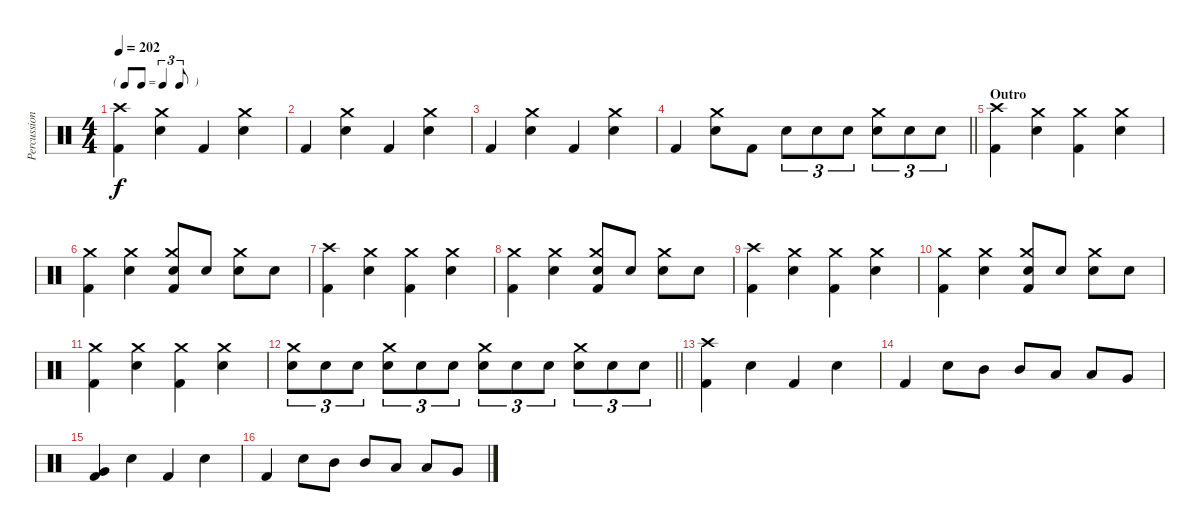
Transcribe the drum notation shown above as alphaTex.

\track ("Percussion" "Percussion") {instrument percussion}
\staff {score}
\articulation defaults
\ts (4 4)
\tf triplet8th
\tempo 202
\clef neutral
\ks c
("Crash high (hit)" "Kick (hit) 2").4{dy f} ("Crash medium (hit)" "Electric Snare (hit)").4 "Kick (hit) 2".4 ("Crash medium (hit)" "Electric Snare (hit)").4 |
"Kick (hit) 2".4 ("Crash medium (hit)" "Electric Snare (hit)").4 "Kick (hit) 2".4 ("Crash medium (hit)" "Electric Snare (hit)").4 |
"Kick (hit) 2".4 ("Crash medium (hit)" "Electric Snare (hit)").4 "Kick (hit) 2".4 ("Crash medium (hit)" "Electric Snare (hit)").4 |
\barLineRight lightlight "Kick (hit) 2".4
("Crash medium (hit)" "Electric Snare (hit)").8 "Kick (hit) 2".8 "Electric Snare (hit)".8{tu (3 2)} "Electric Snare (hit)".8{tu (3 2)} "Electric Snare (hit)".8{tu (3 2)} ("Crash medium (hit)" "Electric Snare (hit)").8{tu (3 2)} "Electric Snare (hit)".8{tu (3 2)} "Electric Snare (hit)".8{tu (3 2)} |
\section ("" "Outro")
("Crash high (hit)" "Kick (hit) 2").4 ("Crash medium (hit)" "Electric Snare (hit)").4 ("Crash medium (hit)" "Kick (hit) 2").4 ("Crash medium (hit)" "Electric Snare (hit)").4 |
("Crash medium (hit)" "Kick (hit) 2").4 ("Crash medium (hit)" "Electric Snare (hit)").4 ("Crash medium (hit)" "Electric Snare (hit)" "Kick (hit) 2").8 "Electric Snare (hit)".8 ("Crash medium (hit)" "Electric Snare (hit)").8 "Electric Snare (hit)".8 |
("Crash high (hit)" "Kick (hit) 2").4 ("Crash medium (hit)" "Electric Snare (hit)").4 ("Crash medium (hit)" "Kick (hit) 2").4 ("Crash medium (hit)" "Electric Snare (hit)").4 |
("Crash medium (hit)" "Kick (hit) 2").4 ("Crash medium (hit)" "Electric Snare (hit)").4 ("Crash medium (hit)" "Electric Snare (hit)" "Kick (hit) 2").8 "Electric Snare (hit)".8 ("Crash medium (hit)" "Electric Snare (hit)").8 "Electric Snare (hit)".8 |
("Crash high (hit)" "Kick (hit) 2").4 ("Crash medium (hit)" "Electric Snare (hit)").4 ("Crash medium (hit)" "Kick (hit) 2").4 ("Crash medium (hit)" "Electric Snare (hit)").4 |
("Crash medium (hit)" "Kick (hit) 2").4 ("Crash medium (hit)" "Electric Snare (hit)").4 ("Crash medium (hit)" "Electric Snare (hit)" "Kick (hit) 2").8 "Electric Snare (hit)".8 ("Crash medium (hit)" "Electric Snare (hit)").8 "Electric Snare (hit)".8 |
("Crash medium (hit)" "Kick (hit) 2").4 ("Crash medium (hit)" "Electric Snare (hit)").4 ("Crash medium (hit)" "Kick (hit) 2").4 ("Crash medium (hit)" "Electric Snare (hit)").4 |
\barLineRight lightlight
("Crash medium (hit)" "Electric Snare (hit)").8{tu (3 2)} "Electric Snare (hit)".8{tu (3 2)} "Electric Snare (hit)".8{tu (3 2)} ("Crash medium (hit)" "Electric Snare (hit)").8{tu (3 2)} "Electric Snare (hit)".8{tu (3 2)} "Electric Snare (hit)".8{tu (3 2)} ("Crash medium (hit)" "Electric Snare (hit)").8{tu (3 2)} "Electric Snare (hit)".8{tu (3 2)} "Electric Snare (hit)".8{tu (3 2)} ("Crash medium (hit)" "Electric Snare (hit)").8{tu (3 2)} "Electric Snare (hit)".8{tu (3 2)} "Electric Snare (hit)".8{tu (3 2)} |
("Crash high (hit)" "Kick (hit) 2").4 "Electric Snare (hit)".4 "Kick (hit) 2".4 "Electric Snare (hit)".4 |
"Kick (hit) 2".4 "Electric Snare (hit)".8 "Mid Tom (hit)".8 "Mid Tom (hit)".8 "Low Tom (hit)".8 "Low Tom (hit)".8 "Very Low Tom (hit)".8 |
("Very Low Tom (hit)" "Kick (hit) 2").4 "Electric Snare (hit)".4 "Kick (hit) 2".4 "Electric Snare (hit)".4 |
"Kick (hit) 2".4 "Electric Snare (hit)".8 "Mid Tom (hit)".8 "Mid Tom (hit)".8 "Low Tom (hit)".8 "Low Tom (hit)".8 "Very Low Tom (hit)".8
